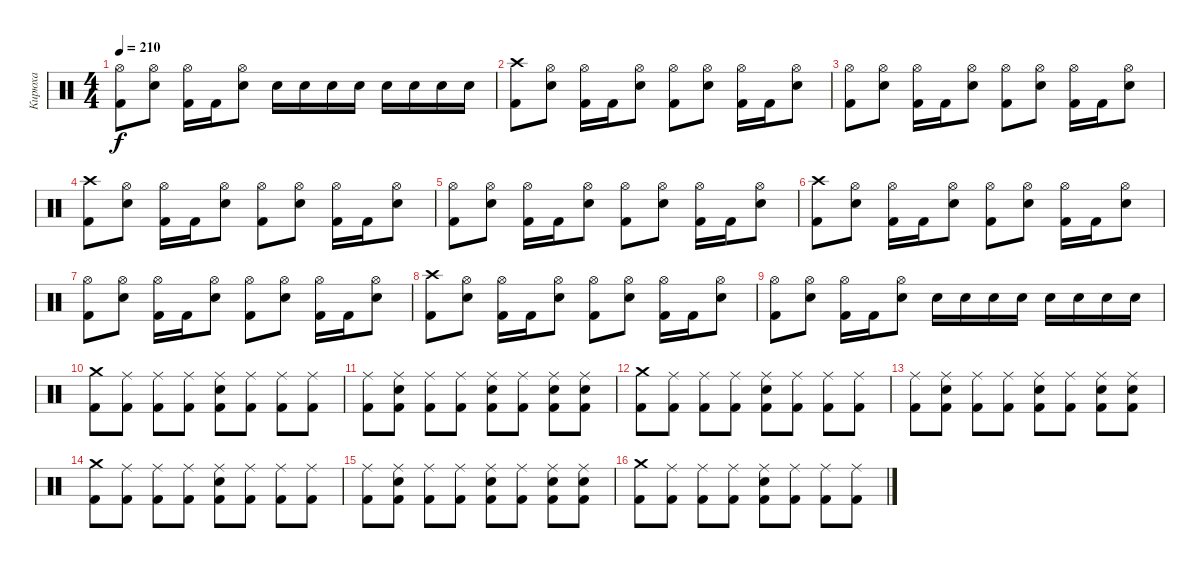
\track ("Кирюха" "Кирюха") {instrument percussion}
\staff {score}
\articulation defaults
\ts (4 4)
\tempo 210
\clef neutral
\ks c
("Kick (hit) 2" "Hi-Hat (open)").8{dy f} ("Electric Snare (hit)" "Hi-Hat (open)").8 ("Kick (hit) 2" "Hi-Hat (open)").16 "Kick (hit) 2".16 ("Electric Snare (hit)" "Hi-Hat (open)").8 "Electric Snare (hit)".16 "Electric Snare (hit)".16 "Electric Snare (hit)".16 "Electric Snare (hit)".16 "Electric Snare (hit)".16 "Electric Snare (hit)".16 "Electric Snare (hit)".16 "Electric Snare (hit)".16 |
("Kick (hit) 2" "Crash high (hit)").8 ("Electric Snare (hit)" "Hi-Hat (open)").8 ("Kick (hit) 2" "Hi-Hat (open)").16 "Kick (hit) 2".16 ("Electric Snare (hit)" "Hi-Hat (open)").8 ("Kick (hit) 2" "Hi-Hat (open)").8 ("Electric Snare (hit)" "Hi-Hat (open)").8 ("Kick (hit) 2" "Hi-Hat (open)").16 "Kick (hit) 2".16 ("Electric Snare (hit)" "Hi-Hat (open)").8 |
("Kick (hit) 2" "Hi-Hat (open)").8 ("Electric Snare (hit)" "Hi-Hat (open)").8 ("Kick (hit) 2" "Hi-Hat (open)").16 "Kick (hit) 2".16 ("Electric Snare (hit)" "Hi-Hat (open)").8 ("Kick (hit) 2" "Hi-Hat (open)").8 ("Electric Snare (hit)" "Hi-Hat (open)").8 ("Kick (hit) 2" "Hi-Hat (open)").16 "Kick (hit) 2".16 ("Electric Snare (hit)" "Hi-Hat (open)").8 |
("Kick (hit) 2" "Crash high (hit)").8 ("Electric Snare (hit)" "Hi-Hat (open)").8 ("Kick (hit) 2" "Hi-Hat (open)").16 "Kick (hit) 2".16 ("Electric Snare (hit)" "Hi-Hat (open)").8 ("Kick (hit) 2" "Hi-Hat (open)").8 ("Electric Snare (hit)" "Hi-Hat (open)").8 ("Kick (hit) 2" "Hi-Hat (open)").16 "Kick (hit) 2".16 ("Electric Snare (hit)" "Hi-Hat (open)").8 |
("Kick (hit) 2" "Hi-Hat (open)").8 ("Electric Snare (hit)" "Hi-Hat (open)").8 ("Kick (hit) 2" "Hi-Hat (open)").16 "Kick (hit) 2".16 ("Electric Snare (hit)" "Hi-Hat (open)").8 ("Kick (hit) 2" "Hi-Hat (open)").8 ("Electric Snare (hit)" "Hi-Hat (open)").8 ("Kick (hit) 2" "Hi-Hat (open)").16 "Kick (hit) 2".16 ("Electric Snare (hit)" "Hi-Hat (open)").8 |
("Kick (hit) 2" "Crash high (hit)").8 ("Electric Snare (hit)" "Hi-Hat (open)").8 ("Kick (hit) 2" "Hi-Hat (open)").16 "Kick (hit) 2".16 ("Electric Snare (hit)" "Hi-Hat (open)").8 ("Kick (hit) 2" "Hi-Hat (open)").8 ("Electric Snare (hit)" "Hi-Hat (open)").8 ("Kick (hit) 2" "Hi-Hat (open)").16 "Kick (hit) 2".16 ("Electric Snare (hit)" "Hi-Hat (open)").8 |
("Kick (hit) 2" "Hi-Hat (open)").8 ("Electric Snare (hit)" "Hi-Hat (open)").8 ("Kick (hit) 2" "Hi-Hat (open)").16 "Kick (hit) 2".16 ("Electric Snare (hit)" "Hi-Hat (open)").8 ("Kick (hit) 2" "Hi-Hat (open)").8 ("Electric Snare (hit)" "Hi-Hat (open)").8 ("Kick (hit) 2" "Hi-Hat (open)").16 "Kick (hit) 2".16 ("Electric Snare (hit)" "Hi-Hat (open)").8 |
("Kick (hit) 2" "Crash high (hit)").8 ("Electric Snare (hit)" "Hi-Hat (open)").8 ("Kick (hit) 2" "Hi-Hat (open)").16 "Kick (hit) 2".16 ("Electric Snare (hit)" "Hi-Hat (open)").8 ("Kick (hit) 2" "Hi-Hat (open)").8 ("Electric Snare (hit)" "Hi-Hat (open)").8 ("Kick (hit) 2" "Hi-Hat (open)").16 "Kick (hit) 2".16 ("Electric Snare (hit)" "Hi-Hat (open)").8 |
("Kick (hit) 2" "Hi-Hat (open)").8 ("Electric Snare (hit)" "Hi-Hat (open)").8 ("Kick (hit) 2" "Hi-Hat (open)").16 "Kick (hit) 2".16 ("Electric Snare (hit)" "Hi-Hat (open)").8 "Electric Snare (hit)".16 "Electric Snare (hit)".16 "Electric Snare (hit)".16 "Electric Snare (hit)".16 "Electric Snare (hit)".16 "Electric Snare (hit)".16 "Electric Snare (hit)".16 "Electric Snare (hit)".16 |
("Kick (hit) 2" "Crash medium (hit)").8 ("Kick (hit) 2" "Ride (middle)").8 ("Kick (hit) 2" "Ride (middle)").8 ("Kick (hit) 2" "Ride (middle)").8 ("Kick (hit) 2" "Electric Snare (hit)" "Ride (middle)").8 ("Kick (hit) 2" "Ride (middle)").8 ("Kick (hit) 2" "Ride (middle)").8 ("Kick (hit) 2" "Ride (middle)").8 |
("Kick (hit) 2" "Ride (middle)").8 ("Kick (hit) 2" "Electric Snare (hit)" "Ride (middle)").8 ("Kick (hit) 2" "Ride (middle)").8 ("Kick (hit) 2" "Ride (middle)").8 ("Kick (hit) 2" "Electric Snare (hit)" "Ride (middle)").8 ("Kick (hit) 2" "Ride (middle)").8 ("Kick (hit) 2" "Electric Snare (hit)" "Ride (middle)").8 ("Kick (hit) 2" "Electric Snare (hit)" "Ride (middle)").8 |
("Kick (hit) 2" "Crash medium (hit)").8 ("Kick (hit) 2" "Ride (middle)").8 ("Kick (hit) 2" "Ride (middle)").8 ("Kick (hit) 2" "Ride (middle)").8 ("Kick (hit) 2" "Electric Snare (hit)" "Ride (middle)").8 ("Kick (hit) 2" "Ride (middle)").8 ("Kick (hit) 2" "Ride (middle)").8 ("Kick (hit) 2" "Ride (middle)").8 |
("Kick (hit) 2" "Ride (middle)").8 ("Kick (hit) 2" "Electric Snare (hit)" "Ride (middle)").8 ("Kick (hit) 2" "Ride (middle)").8 ("Kick (hit) 2" "Ride (middle)").8 ("Kick (hit) 2" "Electric Snare (hit)" "Ride (middle)").8 ("Kick (hit) 2" "Ride (middle)").8 ("Kick (hit) 2" "Electric Snare (hit)" "Ride (middle)").8 ("Kick (hit) 2" "Electric Snare (hit)" "Ride (middle)").8 |
("Kick (hit) 2" "Crash medium (hit)").8 ("Kick (hit) 2" "Ride (middle)").8 ("Kick (hit) 2" "Ride (middle)").8 ("Kick (hit) 2" "Ride (middle)").8 ("Kick (hit) 2" "Electric Snare (hit)" "Ride (middle)").8 ("Kick (hit) 2" "Ride (middle)").8 ("Kick (hit) 2" "Ride (middle)").8 ("Kick (hit) 2" "Ride (middle)").8 |
("Kick (hit) 2" "Ride (middle)").8 ("Kick (hit) 2" "Electric Snare (hit)" "Ride (middle)").8 ("Kick (hit) 2" "Ride (middle)").8 ("Kick (hit) 2" "Ride (middle)").8 ("Kick (hit) 2" "Electric Snare (hit)" "Ride (middle)").8 ("Kick (hit) 2" "Ride (middle)").8 ("Kick (hit) 2" "Electric Snare (hit)" "Ride (middle)").8 ("Kick (hit) 2" "Electric Snare (hit)" "Ride (middle)").8 |
("Kick (hit) 2" "Crash medium (hit)").8 ("Kick (hit) 2" "Ride (middle)").8 ("Kick (hit) 2" "Ride (middle)").8 ("Kick (hit) 2" "Ride (middle)").8 ("Kick (hit) 2" "Electric Snare (hit)" "Ride (middle)").8 ("Kick (hit) 2" "Ride (middle)").8 ("Kick (hit) 2" "Ride (middle)").8 ("Kick (hit) 2" "Ride (middle)").8
